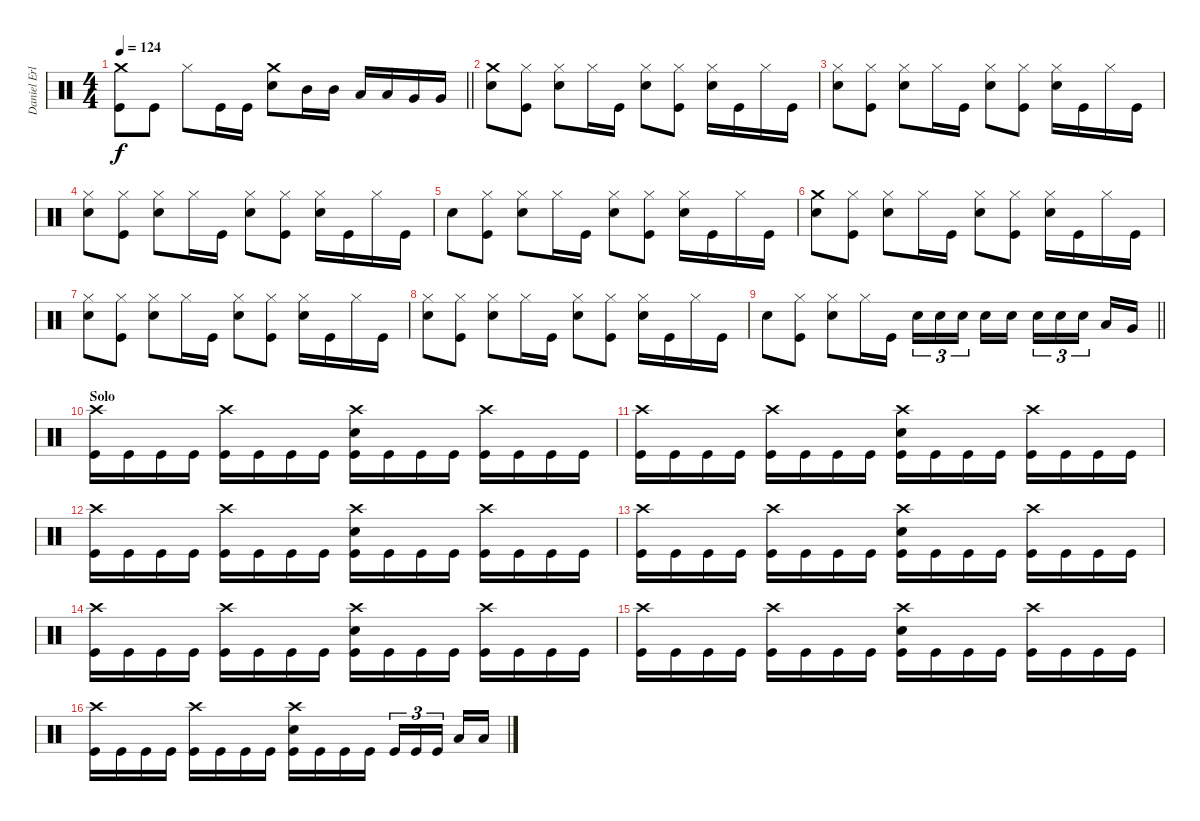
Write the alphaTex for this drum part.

\track ("Daniel Erlandsson" "Daniel Erl") {instrument percussion}
\staff {score}
\articulation defaults
\ts (4 4)
\tempo 124
\clef neutral
\barLineRight lightlight
\ks c
("Crash medium (hit)" "Kick (hit)").8{dy f} "Kick (hit)".8 "Hi-Hat (closed)".8 "Kick (hit)".16 "Kick (hit)".16 ("Crash medium (hit)" "Snare (hit) 2").8 "Mid Tom (hit)".16 "Mid Tom (hit)".16 "Low Tom (hit)".16 "Low Tom (hit)".16 "Very Low Tom (hit)".16 "Very Low Tom (hit)".16 |
\section ("" "")
("Crash medium (hit)" "Snare (hit) 2").8 ("Hi-Hat (closed)" "Kick (hit)").8 ("Hi-Hat (closed)" "Snare (hit) 2").8 "Hi-Hat (closed)".16 "Kick (hit)".16 ("Hi-Hat (closed)" "Snare (hit) 2").8 ("Hi-Hat (closed)" "Kick (hit)").8 ("Hi-Hat (closed)" "Snare (hit) 2").16 "Kick (hit)".16 "Hi-Hat (closed)".16 "Kick (hit)".16 |
("Hi-Hat (closed)" "Snare (hit) 2").8 ("Hi-Hat (closed)" "Kick (hit)").8 ("Hi-Hat (closed)" "Snare (hit) 2").8 "Hi-Hat (closed)".16 "Kick (hit)".16 ("Hi-Hat (closed)" "Snare (hit) 2").8 ("Hi-Hat (closed)" "Kick (hit)").8 ("Hi-Hat (closed)" "Snare (hit) 2").16 "Kick (hit)".16 "Hi-Hat (closed)".16 "Kick (hit)".16 |
("Hi-Hat (closed)" "Snare (hit) 2").8 ("Hi-Hat (closed)" "Kick (hit)").8 ("Hi-Hat (closed)" "Snare (hit) 2").8 "Hi-Hat (closed)".16 "Kick (hit)".16 ("Hi-Hat (closed)" "Snare (hit) 2").8 ("Hi-Hat (closed)" "Kick (hit)").8 ("Hi-Hat (closed)" "Snare (hit) 2").16 "Kick (hit)".16 "Hi-Hat (closed)".16 "Kick (hit)".16 |
"Snare (hit) 2".8 ("Hi-Hat (closed)" "Kick (hit)").8 ("Hi-Hat (closed)" "Snare (hit) 2").8 "Hi-Hat (closed)".16 "Kick (hit)".16 ("Hi-Hat (closed)" "Snare (hit) 2").8 ("Hi-Hat (closed)" "Kick (hit)").8 ("Hi-Hat (closed)" "Snare (hit) 2").16 "Kick (hit)".16 "Hi-Hat (closed)".16 "Kick (hit)".16 |
("Crash medium (hit)" "Snare (hit) 2").8 ("Hi-Hat (closed)" "Kick (hit)").8 ("Hi-Hat (closed)" "Snare (hit) 2").8 "Hi-Hat (closed)".16 "Kick (hit)".16 ("Hi-Hat (closed)" "Snare (hit) 2").8 ("Hi-Hat (closed)" "Kick (hit)").8 ("Hi-Hat (closed)" "Snare (hit) 2").16 "Kick (hit)".16 "Hi-Hat (closed)".16 "Kick (hit)".16 |
("Hi-Hat (closed)" "Snare (hit) 2").8 ("Hi-Hat (closed)" "Kick (hit)").8 ("Hi-Hat (closed)" "Snare (hit) 2").8 "Hi-Hat (closed)".16 "Kick (hit)".16 ("Hi-Hat (closed)" "Snare (hit) 2").8 ("Hi-Hat (closed)" "Kick (hit)").8 ("Hi-Hat (closed)" "Snare (hit) 2").16 "Kick (hit)".16 "Hi-Hat (closed)".16 "Kick (hit)".16 |
("Hi-Hat (closed)" "Snare (hit) 2").8 ("Hi-Hat (closed)" "Kick (hit)").8 ("Hi-Hat (closed)" "Snare (hit) 2").8 "Hi-Hat (closed)".16 "Kick (hit)".16 ("Hi-Hat (closed)" "Snare (hit) 2").8 ("Hi-Hat (closed)" "Kick (hit)").8 ("Hi-Hat (closed)" "Snare (hit) 2").16 "Kick (hit)".16 "Hi-Hat (closed)".16 "Kick (hit)".16 |
\barLineRight lightlight "Snare (hit) 2".8
("Hi-Hat (closed)" "Kick (hit)").8 ("Hi-Hat (closed)" "Snare (hit) 2").8 "Hi-Hat (closed)".16 "Kick (hit)".16 "Snare (hit) 2".16{tu (3 2)} "Snare (hit) 2".16{tu (3 2)} "Snare (hit) 2".16{tu (3 2) beam splitsecondary} "Snare (hit) 2".16 "Snare (hit) 2".16 "Snare (hit) 2".16{tu (3 2)} "Snare (hit) 2".16{tu (3 2)} "Snare (hit) 2".16{tu (3 2) beam splitsecondary} "Low Tom (hit)".16 "Very Low Tom (hit)".16 |
\section ("" "Solo")
("Crash high (hit)" "Kick (hit)").16 "Kick (hit)".16 "Kick (hit)".16 "Kick (hit)".16 ("Crash high (hit)" "Kick (hit)").16 "Kick (hit)".16 "Kick (hit)".16 "Kick (hit)".16 ("Crash high (hit)" "Snare (hit) 2" "Kick (hit)").16 "Kick (hit)".16 "Kick (hit)".16 "Kick (hit)".16 ("Crash high (hit)" "Kick (hit)").16 "Kick (hit)".16 "Kick (hit)".16 "Kick (hit)".16 |
("Crash high (hit)" "Kick (hit)").16 "Kick (hit)".16 "Kick (hit)".16 "Kick (hit)".16 ("Crash high (hit)" "Kick (hit)").16 "Kick (hit)".16 "Kick (hit)".16 "Kick (hit)".16 ("Crash high (hit)" "Snare (hit) 2" "Kick (hit)").16 "Kick (hit)".16 "Kick (hit)".16 "Kick (hit)".16 ("Crash high (hit)" "Kick (hit)").16 "Kick (hit)".16 "Kick (hit)".16 "Kick (hit)".16 |
("Crash high (hit)" "Kick (hit)").16 "Kick (hit)".16 "Kick (hit)".16 "Kick (hit)".16 ("Crash high (hit)" "Kick (hit)").16 "Kick (hit)".16 "Kick (hit)".16 "Kick (hit)".16 ("Crash high (hit)" "Snare (hit) 2" "Kick (hit)").16 "Kick (hit)".16 "Kick (hit)".16 "Kick (hit)".16 ("Crash high (hit)" "Kick (hit)").16 "Kick (hit)".16 "Kick (hit)".16 "Kick (hit)".16 |
("Crash high (hit)" "Kick (hit)").16 "Kick (hit)".16 "Kick (hit)".16 "Kick (hit)".16 ("Crash high (hit)" "Kick (hit)").16 "Kick (hit)".16 "Kick (hit)".16 "Kick (hit)".16 ("Crash high (hit)" "Snare (hit) 2" "Kick (hit)").16 "Kick (hit)".16 "Kick (hit)".16 "Kick (hit)".16 ("Crash high (hit)" "Kick (hit)").16 "Kick (hit)".16 "Kick (hit)".16 "Kick (hit)".16 |
("Crash high (hit)" "Kick (hit)").16 "Kick (hit)".16 "Kick (hit)".16 "Kick (hit)".16 ("Crash high (hit)" "Kick (hit)").16 "Kick (hit)".16 "Kick (hit)".16 "Kick (hit)".16 ("Crash high (hit)" "Snare (hit) 2" "Kick (hit)").16 "Kick (hit)".16 "Kick (hit)".16 "Kick (hit)".16 ("Crash high (hit)" "Kick (hit)").16 "Kick (hit)".16 "Kick (hit)".16 "Kick (hit)".16 |
("Crash high (hit)" "Kick (hit)").16 "Kick (hit)".16 "Kick (hit)".16 "Kick (hit)".16 ("Crash high (hit)" "Kick (hit)").16 "Kick (hit)".16 "Kick (hit)".16 "Kick (hit)".16 ("Crash high (hit)" "Snare (hit) 2" "Kick (hit)").16 "Kick (hit)".16 "Kick (hit)".16 "Kick (hit)".16 ("Crash high (hit)" "Kick (hit)").16 "Kick (hit)".16 "Kick (hit)".16 "Kick (hit)".16 |
("Crash high (hit)" "Kick (hit)").16 "Kick (hit)".16 "Kick (hit)".16 "Kick (hit)".16 ("Crash high (hit)" "Kick (hit)").16 "Kick (hit)".16 "Kick (hit)".16 "Kick (hit)".16 ("Crash high (hit)" "Snare (hit) 2" "Kick (hit)").16 "Kick (hit)".16 "Kick (hit)".16 "Kick (hit)".16 "Kick (hit)".16{tu (3 2)} "Kick (hit)".16{tu (3 2)} "Kick (hit)".16{tu (3 2) beam splitsecondary} "Low Tom (hit)".16 "Low Tom (hit)".16
